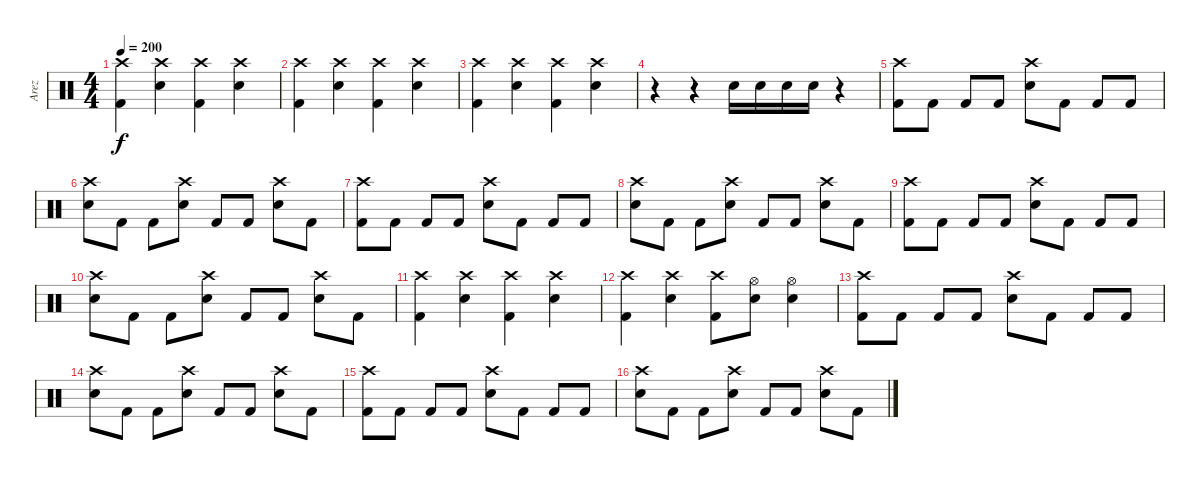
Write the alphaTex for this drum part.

\track ("Arez" "Arez") {instrument percussion}
\staff {score}
\articulation defaults
\ts (4 4)
\tempo 200
\clef neutral
\ks c
("Kick (hit) 2" "Crash high (hit)").4{dy f} ("Crash high (hit)" "Electric Snare (hit)").4 ("Kick (hit) 2" "Crash high (hit)").4 ("Crash high (hit)" "Electric Snare (hit)").4 |
("Kick (hit) 2" "Crash high (hit)").4 ("Crash high (hit)" "Electric Snare (hit)").4 ("Kick (hit) 2" "Crash high (hit)").4 ("Crash high (hit)" "Electric Snare (hit)").4 |
("Kick (hit) 2" "Crash high (hit)").4 ("Crash high (hit)" "Electric Snare (hit)").4 ("Kick (hit) 2" "Crash high (hit)").4 ("Crash high (hit)" "Electric Snare (hit)").4 |
r.4 r.4 "Electric Snare (hit)".16 "Electric Snare (hit)".16 "Electric Snare (hit)".16 "Electric Snare (hit)".16 r.4 |
("Crash high (hit)" "Kick (hit) 2").8 "Kick (hit) 2".8 "Kick (hit) 2".8 "Kick (hit) 2".8 ("Electric Snare (hit)" "Crash high (hit)").8 "Kick (hit) 2".8 "Kick (hit) 2".8 "Kick (hit) 2".8 |
("Crash high (hit)" "Electric Snare (hit)").8 "Kick (hit) 2".8 "Kick (hit) 2".8 ("Crash high (hit)" "Electric Snare (hit)").8 "Kick (hit) 2".8 "Kick (hit) 2".8 ("Electric Snare (hit)" "Crash high (hit)").8 "Kick (hit) 2".8 |
("Crash high (hit)" "Kick (hit) 2").8 "Kick (hit) 2".8 "Kick (hit) 2".8 "Kick (hit) 2".8 ("Electric Snare (hit)" "Crash high (hit)").8 "Kick (hit) 2".8 "Kick (hit) 2".8 "Kick (hit) 2".8 |
("Crash high (hit)" "Electric Snare (hit)").8 "Kick (hit) 2".8 "Kick (hit) 2".8 ("Crash high (hit)" "Electric Snare (hit)").8 "Kick (hit) 2".8 "Kick (hit) 2".8 ("Electric Snare (hit)" "Crash high (hit)").8 "Kick (hit) 2".8 |
("Crash high (hit)" "Kick (hit) 2").8 "Kick (hit) 2".8 "Kick (hit) 2".8 "Kick (hit) 2".8 ("Electric Snare (hit)" "Crash high (hit)").8 "Kick (hit) 2".8 "Kick (hit) 2".8 "Kick (hit) 2".8 |
("Crash high (hit)" "Electric Snare (hit)").8 "Kick (hit) 2".8 "Kick (hit) 2".8 ("Crash high (hit)" "Electric Snare (hit)").8 "Kick (hit) 2".8 "Kick (hit) 2".8 ("Electric Snare (hit)" "Crash high (hit)").8 "Kick (hit) 2".8 |
("Crash high (hit)" "Kick (hit) 2").4 ("Electric Snare (hit)" "Crash high (hit)").4 ("Crash high (hit)" "Kick (hit) 2").4 ("Electric Snare (hit)" "Crash high (hit)").4 |
("Crash high (hit)" "Kick (hit) 2").4 ("Electric Snare (hit)" "Crash high (hit)").4 ("Crash high (hit)" "Kick (hit) 2").8 ("Hi-Hat (open)" "Electric Snare (hit)").8 ("Hi-Hat (open)" "Electric Snare (hit)").4 |
("Crash high (hit)" "Kick (hit) 2").8 "Kick (hit) 2".8 "Kick (hit) 2".8 "Kick (hit) 2".8 ("Electric Snare (hit)" "Crash high (hit)").8 "Kick (hit) 2".8 "Kick (hit) 2".8 "Kick (hit) 2".8 |
("Crash high (hit)" "Electric Snare (hit)").8 "Kick (hit) 2".8 "Kick (hit) 2".8 ("Crash high (hit)" "Electric Snare (hit)").8 "Kick (hit) 2".8 "Kick (hit) 2".8 ("Electric Snare (hit)" "Crash high (hit)").8 "Kick (hit) 2".8 |
("Crash high (hit)" "Kick (hit) 2").8 "Kick (hit) 2".8 "Kick (hit) 2".8 "Kick (hit) 2".8 ("Electric Snare (hit)" "Crash high (hit)").8 "Kick (hit) 2".8 "Kick (hit) 2".8 "Kick (hit) 2".8 |
("Crash high (hit)" "Electric Snare (hit)").8 "Kick (hit) 2".8 "Kick (hit) 2".8 ("Crash high (hit)" "Electric Snare (hit)").8 "Kick (hit) 2".8 "Kick (hit) 2".8 ("Electric Snare (hit)" "Crash high (hit)").8 "Kick (hit) 2".8
